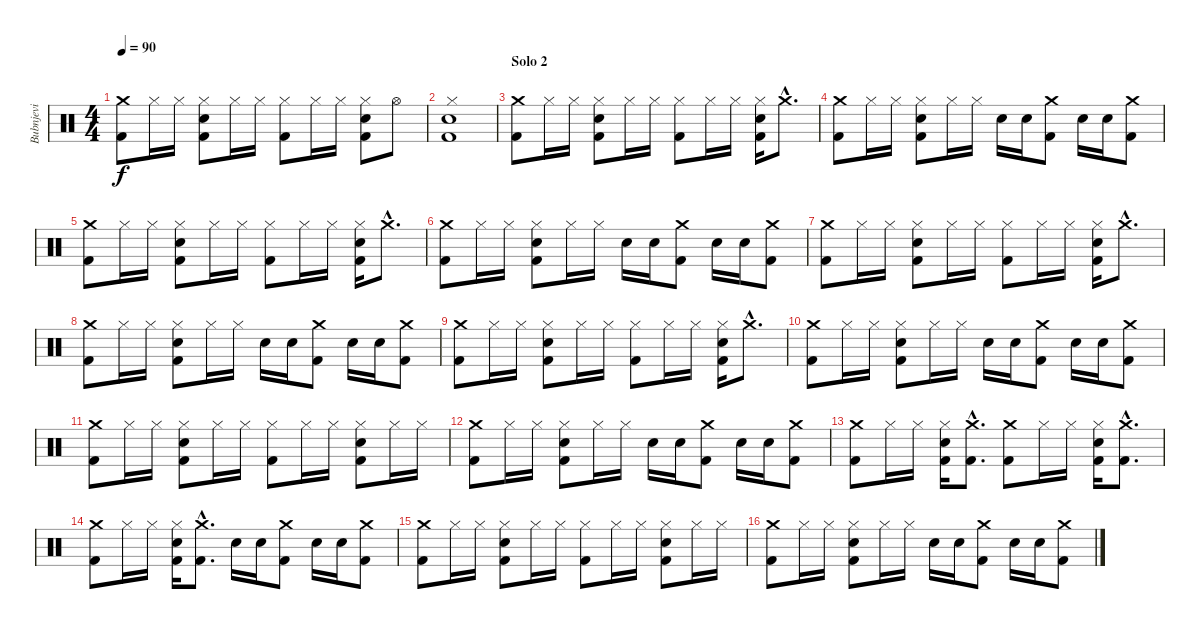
\track ("Bubnjevi" "Bubnjevi") {instrument percussion}
\staff {score}
\articulation defaults
\ts (4 4)
\tempo 90
\clef neutral
\ks c
("Crash medium (hit)" "Kick (hit) 2").8{dy f} "Hi-Hat (closed)".16 "Hi-Hat (closed)".16 ("Snare (hit) 2" "Hi-Hat (closed)" "Kick (hit) 2").8 "Hi-Hat (closed)".16 "Hi-Hat (closed)".16 ("Hi-Hat (closed)" "Kick (hit) 2").8 "Hi-Hat (closed)".16 "Hi-Hat (closed)".16 ("Snare (hit) 2" "Hi-Hat (closed)" "Kick (hit) 2").8 "Hi-Hat (open)".8 |
("Snare (hit) 2" "Hi-Hat (closed)" "Kick (hit) 2").1 |
\section ("" "Solo 2")
("Crash medium (hit)" "Kick (hit) 2").8 "Hi-Hat (closed)".16 "Hi-Hat (closed)".16 ("Snare (hit) 2" "Hi-Hat (closed)" "Kick (hit) 2").8 "Hi-Hat (closed)".16 "Hi-Hat (closed)".16 ("Hi-Hat (closed)" "Kick (hit) 2").8 "Hi-Hat (closed)".16 "Hi-Hat (closed)".16 ("Snare (hit) 2" "Hi-Hat (closed)" "Kick (hit) 2").16 "Crash medium (hit)"{hac}.8{d} |
("Crash medium (hit)" "Kick (hit) 2").8 "Hi-Hat (closed)".16 "Hi-Hat (closed)".16 ("Snare (hit) 2" "Hi-Hat (closed)" "Kick (hit) 2").8 "Hi-Hat (closed)".16 "Hi-Hat (closed)".16 "Snare (hit) 2".16 "Snare (hit) 2".16 ("Crash medium (hit)" "Kick (hit) 2").8 "Snare (hit) 2".16 "Snare (hit) 2".16 ("Crash medium (hit)" "Kick (hit) 2").8 |
("Crash medium (hit)" "Kick (hit) 2").8 "Hi-Hat (closed)".16 "Hi-Hat (closed)".16 ("Snare (hit) 2" "Hi-Hat (closed)" "Kick (hit) 2").8 "Hi-Hat (closed)".16 "Hi-Hat (closed)".16 ("Hi-Hat (closed)" "Kick (hit) 2").8 "Hi-Hat (closed)".16 "Hi-Hat (closed)".16 ("Snare (hit) 2" "Hi-Hat (closed)" "Kick (hit) 2").16 "Crash medium (hit)"{hac}.8{d} |
("Crash medium (hit)" "Kick (hit) 2").8 "Hi-Hat (closed)".16 "Hi-Hat (closed)".16 ("Snare (hit) 2" "Hi-Hat (closed)" "Kick (hit) 2").8 "Hi-Hat (closed)".16 "Hi-Hat (closed)".16 "Snare (hit) 2".16 "Snare (hit) 2".16 ("Crash medium (hit)" "Kick (hit) 2").8 "Snare (hit) 2".16 "Snare (hit) 2".16 ("Crash medium (hit)" "Kick (hit) 2").8 |
("Crash medium (hit)" "Kick (hit) 2").8 "Hi-Hat (closed)".16 "Hi-Hat (closed)".16 ("Snare (hit) 2" "Hi-Hat (closed)" "Kick (hit) 2").8 "Hi-Hat (closed)".16 "Hi-Hat (closed)".16 ("Hi-Hat (closed)" "Kick (hit) 2").8 "Hi-Hat (closed)".16 "Hi-Hat (closed)".16 ("Snare (hit) 2" "Hi-Hat (closed)" "Kick (hit) 2").16 "Crash medium (hit)"{hac}.8{d} |
("Crash medium (hit)" "Kick (hit) 2").8 "Hi-Hat (closed)".16 "Hi-Hat (closed)".16 ("Snare (hit) 2" "Hi-Hat (closed)" "Kick (hit) 2").8 "Hi-Hat (closed)".16 "Hi-Hat (closed)".16 "Snare (hit) 2".16 "Snare (hit) 2".16 ("Crash medium (hit)" "Kick (hit) 2").8 "Snare (hit) 2".16 "Snare (hit) 2".16 ("Crash medium (hit)" "Kick (hit) 2").8 |
("Crash medium (hit)" "Kick (hit) 2").8 "Hi-Hat (closed)".16 "Hi-Hat (closed)".16 ("Snare (hit) 2" "Hi-Hat (closed)" "Kick (hit) 2").8 "Hi-Hat (closed)".16 "Hi-Hat (closed)".16 ("Hi-Hat (closed)" "Kick (hit) 2").8 "Hi-Hat (closed)".16 "Hi-Hat (closed)".16 ("Snare (hit) 2" "Hi-Hat (closed)" "Kick (hit) 2").16 "Crash medium (hit)"{hac}.8{d} |
("Crash medium (hit)" "Kick (hit) 2").8 "Hi-Hat (closed)".16 "Hi-Hat (closed)".16 ("Snare (hit) 2" "Hi-Hat (closed)" "Kick (hit) 2").8 "Hi-Hat (closed)".16 "Hi-Hat (closed)".16 "Snare (hit) 2".16 "Snare (hit) 2".16 ("Crash medium (hit)" "Kick (hit) 2").8 "Snare (hit) 2".16 "Snare (hit) 2".16 ("Crash medium (hit)" "Kick (hit) 2").8 |
("Crash medium (hit)" "Kick (hit) 2").8 "Hi-Hat (closed)".16 "Hi-Hat (closed)".16 ("Snare (hit) 2" "Hi-Hat (closed)" "Kick (hit) 2").8 "Hi-Hat (closed)".16 "Hi-Hat (closed)".16 ("Hi-Hat (closed)" "Kick (hit) 2").8 "Hi-Hat (closed)".16 "Hi-Hat (closed)".16 ("Snare (hit) 2" "Hi-Hat (closed)" "Kick (hit) 2").8 "Hi-Hat (closed)".16 "Hi-Hat (closed)".16 |
("Crash medium (hit)" "Kick (hit) 2").8 "Hi-Hat (closed)".16 "Hi-Hat (closed)".16 ("Snare (hit) 2" "Hi-Hat (closed)" "Kick (hit) 2").8 "Hi-Hat (closed)".16 "Hi-Hat (closed)".16 "Snare (hit) 2".16 "Snare (hit) 2".16 ("Crash medium (hit)" "Kick (hit) 2").8 "Snare (hit) 2".16 "Snare (hit) 2".16 ("Crash medium (hit)" "Kick (hit) 2").8 |
("Crash medium (hit)" "Kick (hit) 2").8 "Hi-Hat (closed)".16 "Hi-Hat (closed)".16 ("Snare (hit) 2" "Hi-Hat (closed)" "Kick (hit) 2").16 ("Crash medium (hit)"{hac} "Kick (hit) 2"{hac}).8{d} ("Crash medium (hit)" "Kick (hit) 2").8 "Hi-Hat (closed)".16 "Hi-Hat (closed)".16 ("Snare (hit) 2" "Hi-Hat (closed)" "Kick (hit) 2").16 ("Crash medium (hit)"{hac} "Kick (hit) 2"{hac}).8{d} |
("Crash medium (hit)" "Kick (hit) 2").8 "Hi-Hat (closed)".16 "Hi-Hat (closed)".16 ("Snare (hit) 2" "Hi-Hat (closed)" "Kick (hit) 2").16 ("Crash medium (hit)"{hac} "Kick (hit) 2"{hac}).8{d} "Snare (hit) 2".16 "Snare (hit) 2".16 ("Crash medium (hit)" "Kick (hit) 2").8 "Snare (hit) 2".16 "Snare (hit) 2".16 ("Crash medium (hit)" "Kick (hit) 2").8 |
("Crash medium (hit)" "Kick (hit) 2").8 "Hi-Hat (closed)".16 "Hi-Hat (closed)".16 ("Snare (hit) 2" "Hi-Hat (closed)" "Kick (hit) 2").8 "Hi-Hat (closed)".16 "Hi-Hat (closed)".16 ("Hi-Hat (closed)" "Kick (hit) 2").8 "Hi-Hat (closed)".16 "Hi-Hat (closed)".16 ("Snare (hit) 2" "Hi-Hat (closed)" "Kick (hit) 2").8 "Hi-Hat (closed)".16 "Hi-Hat (closed)".16 |
("Crash medium (hit)" "Kick (hit) 2").8 "Hi-Hat (closed)".16 "Hi-Hat (closed)".16 ("Snare (hit) 2" "Hi-Hat (closed)" "Kick (hit) 2").8 "Hi-Hat (closed)".16 "Hi-Hat (closed)".16 "Snare (hit) 2".16 "Snare (hit) 2".16 ("Crash medium (hit)" "Kick (hit) 2").8 "Snare (hit) 2".16 "Snare (hit) 2".16 ("Crash medium (hit)" "Kick (hit) 2").8
